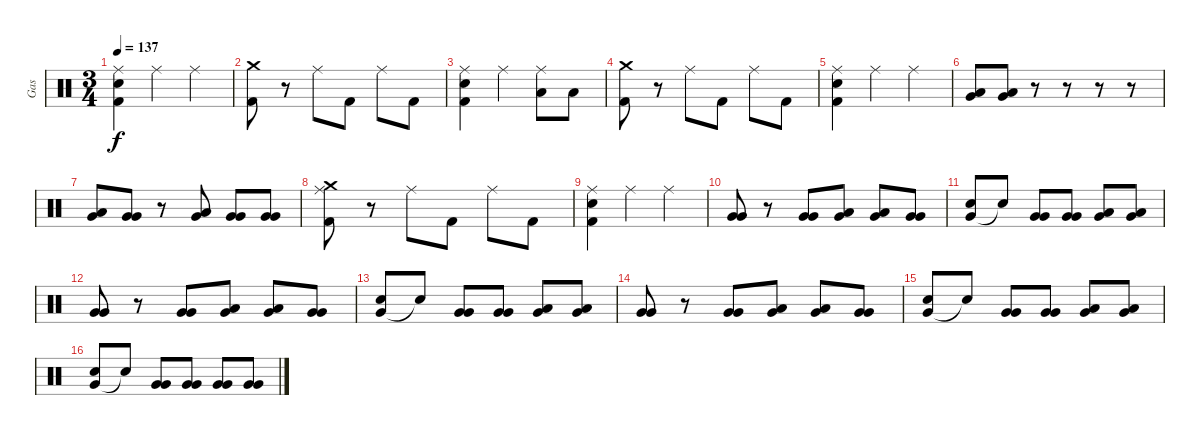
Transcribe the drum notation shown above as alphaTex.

\track ("Gas" "Gas") {instrument percussion}
\staff {score}
\articulation defaults
\ts (3 4)
\tempo 137
\clef neutral
\ks c
("Ride (middle)" "Snare (hit) 2" "Kick (hit) 2").4{dy f} "Ride (middle)".4 "Ride (middle)".4 |
("Crash medium (hit)" "Kick (hit) 2").8 r.8 "Ride (middle)".8 "Kick (hit) 2".8 "Ride (middle)".8 "Kick (hit) 2".8 |
("Ride (middle)" "Snare (hit) 2" "Kick (hit) 2").4 "Ride (middle)".4 ("Ride (middle)" "Low Tom (hit)").8 "Low Tom (hit)".8 |
("Crash medium (hit)" "Kick (hit) 2").8 r.8 "Ride (middle)".8 "Kick (hit) 2".8 "Ride (middle)".8 "Kick (hit) 2".8 |
("Ride (middle)" "Snare (hit) 2" "Kick (hit) 2").4 "Ride (middle)".4 "Ride (middle)".4 |
("Low Tom (hit)" "Very Low Tom (hit)").8 ("Low Tom (hit)" "Very Low Tom (hit)").8 r.8 r.8 r.8 r.8 |
("Low Tom (hit)" "Very Low Tom (hit)").8{bd 60} ("Very Low Tom (hit)" "Very Low Tom (hit)").8{bd 60} r.8 ("Low Tom (hit)" "Very Low Tom (hit)").8{bd 60} ("Very Low Tom (hit)" "Very Low Tom (hit)").8{bd 60} ("Very Low Tom (hit)" "Very Low Tom (hit)").8{bd 60} |
("Ride (middle)" "Crash medium (hit)" "Kick (hit) 2").8 r.8 "Ride (middle)".8 "Kick (hit) 2".8 "Ride (middle)".8 "Kick (hit) 2".8 |
("Ride (middle)" "Snare (hit) 2" "Kick (hit) 2").4 "Ride (middle)".4 "Ride (middle)".4 |
("Very Low Tom (hit)" "Very Low Tom (hit)").8 r.8 ("Very Low Tom (hit)" "Very Low Tom (hit)").8 ("Low Tom (hit)" "Very Low Tom (hit)").8 ("Low Tom (hit)" "Very Low Tom (hit)").8 ("Very Low Tom (hit)" "Very Low Tom (hit)").8 |
("Very Low Tom (hit)" "Snare (hit) 2").8 "Snare (hit)"{t}.8 ("Very Low Tom (hit)" "Very Low Tom (hit)").8 ("Very Low Tom (hit)" "Very Low Tom (hit)").8 ("Very Low Tom (hit)" "Low Tom (hit)").8 ("Very Low Tom (hit)" "Low Tom (hit)").8 |
("Very Low Tom (hit)" "Very Low Tom (hit)").8 r.8 ("Very Low Tom (hit)" "Very Low Tom (hit)").8 ("Low Tom (hit)" "Very Low Tom (hit)").8 ("Low Tom (hit)" "Very Low Tom (hit)").8 ("Very Low Tom (hit)" "Very Low Tom (hit)").8 |
("Very Low Tom (hit)" "Snare (hit) 2").8 "Snare (hit)"{t}.8 ("Very Low Tom (hit)" "Very Low Tom (hit)").8 ("Very Low Tom (hit)" "Very Low Tom (hit)").8 ("Very Low Tom (hit)" "Low Tom (hit)").8 ("Very Low Tom (hit)" "Low Tom (hit)").8 |
("Very Low Tom (hit)" "Very Low Tom (hit)").8 r.8 ("Very Low Tom (hit)" "Very Low Tom (hit)").8 ("Low Tom (hit)" "Very Low Tom (hit)").8 ("Low Tom (hit)" "Very Low Tom (hit)").8 ("Very Low Tom (hit)" "Very Low Tom (hit)").8 |
("Very Low Tom (hit)" "Snare (hit) 2").8 "Snare (hit)"{t}.8 ("Very Low Tom (hit)" "Very Low Tom (hit)").8 ("Very Low Tom (hit)" "Very Low Tom (hit)").8 ("Very Low Tom (hit)" "Low Tom (hit)").8 ("Very Low Tom (hit)" "Low Tom (hit)").8 |
("Very Low Tom (hit)" "Snare (hit) 2").8 "Snare (hit)"{t}.8 ("Very Low Tom (hit)" "Very Low Tom (hit)").8 ("Very Low Tom (hit)" "Very Low Tom (hit)").8 ("Very Low Tom (hit)" "Very Low Tom (hit)").8 ("Very Low Tom (hit)" "Very Low Tom (hit)").8
